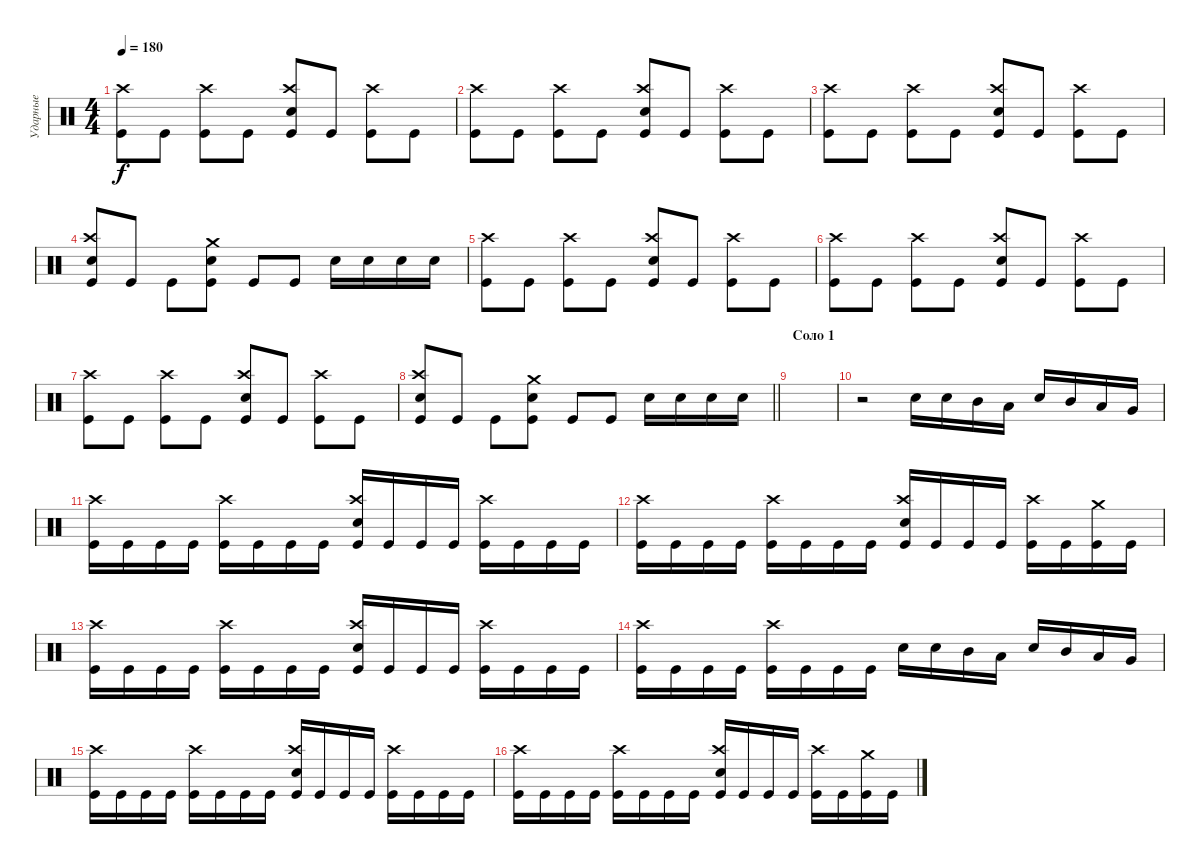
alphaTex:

\track ("Ударные" "Ударные") {instrument percussion}
\staff {score}
\articulation defaults
\ts (4 4)
\tempo 180
\clef neutral
\ks c
("Kick (hit)" "Crash high (hit)").8{dy f} "Kick (hit)".8 ("Kick (hit)" "Crash high (hit)").8 "Kick (hit)".8 ("Kick (hit)" "Crash high (hit)" "Snare (hit) 2").8 "Kick (hit)".8 ("Kick (hit)" "Crash high (hit)").8 "Kick (hit)".8 |
("Kick (hit)" "Crash high (hit)").8 "Kick (hit)".8 ("Kick (hit)" "Crash high (hit)").8 "Kick (hit)".8 ("Kick (hit)" "Crash high (hit)" "Snare (hit) 2").8 "Kick (hit)".8 ("Kick (hit)" "Crash high (hit)").8 "Kick (hit)".8 |
("Kick (hit)" "Crash high (hit)").8 "Kick (hit)".8 ("Kick (hit)" "Crash high (hit)").8 "Kick (hit)".8 ("Kick (hit)" "Crash high (hit)" "Snare (hit) 2").8 "Kick (hit)".8 ("Kick (hit)" "Crash high (hit)").8 "Kick (hit)".8 |
("Kick (hit)" "Crash high (hit)" "Snare (hit) 2").8 "Kick (hit)".8 "Kick (hit)".8 ("Kick (hit)" "Snare (hit) 2" "Crash medium (hit)").8 "Kick (hit)".8 "Kick (hit)".8 "Snare (hit) 2".16 "Snare (hit) 2".16 "Snare (hit) 2".16 "Snare (hit) 2".16 |
("Kick (hit)" "Crash high (hit)").8 "Kick (hit)".8 ("Kick (hit)" "Crash high (hit)").8 "Kick (hit)".8 ("Kick (hit)" "Crash high (hit)" "Snare (hit) 2").8 "Kick (hit)".8 ("Kick (hit)" "Crash high (hit)").8 "Kick (hit)".8 |
("Kick (hit)" "Crash high (hit)").8 "Kick (hit)".8 ("Kick (hit)" "Crash high (hit)").8 "Kick (hit)".8 ("Kick (hit)" "Crash high (hit)" "Snare (hit) 2").8 "Kick (hit)".8 ("Kick (hit)" "Crash high (hit)").8 "Kick (hit)".8 |
("Kick (hit)" "Crash high (hit)").8 "Kick (hit)".8 ("Kick (hit)" "Crash high (hit)").8 "Kick (hit)".8 ("Kick (hit)" "Crash high (hit)" "Snare (hit) 2").8 "Kick (hit)".8 ("Kick (hit)" "Crash high (hit)").8 "Kick (hit)".8 |
\barLineRight lightlight
("Kick (hit)" "Crash high (hit)" "Snare (hit) 2").8 "Kick (hit)".8 "Kick (hit)".8 ("Kick (hit)" "Snare (hit) 2" "Crash medium (hit)").8 "Kick (hit)".8 "Kick (hit)".8 "Snare (hit) 2".16 "Snare (hit) 2".16 "Snare (hit) 2".16 "Snare (hit) 2".16 |
\section ("" "Соло 1")
|
r.2 "Snare (hit) 2".16 "Snare (hit) 2".16 "Mid Tom (hit)".16 "Low Tom (hit)".16 "Snare (hit) 2".16 "Mid Tom (hit)".16 "Low Tom (hit)".16 "Very Low Tom (hit)".16 |
("Kick (hit)" "Crash high (hit)").16 "Kick (hit)".16 "Kick (hit)".16 "Kick (hit)".16 ("Kick (hit)" "Crash high (hit)").16 "Kick (hit)".16 "Kick (hit)".16 "Kick (hit)".16 ("Kick (hit)" "Crash high (hit)" "Snare (hit) 2").16 "Kick (hit)".16 "Kick (hit)".16 "Kick (hit)".16 ("Kick (hit)" "Crash high (hit)").16 "Kick (hit)".16 "Kick (hit)".16 "Kick (hit)".16 |
("Kick (hit)" "Crash high (hit)").16 "Kick (hit)".16 "Kick (hit)".16 "Kick (hit)".16 ("Kick (hit)" "Crash high (hit)").16 "Kick (hit)".16 "Kick (hit)".16 "Kick (hit)".16 ("Kick (hit)" "Crash high (hit)" "Snare (hit) 2").16 "Kick (hit)".16 "Kick (hit)".16 "Kick (hit)".16 ("Kick (hit)" "Crash high (hit)").16 "Kick (hit)".16 ("Kick (hit)" "Crash medium (hit)").16 "Kick (hit)".16 |
("Kick (hit)" "Crash high (hit)").16 "Kick (hit)".16 "Kick (hit)".16 "Kick (hit)".16 ("Kick (hit)" "Crash high (hit)").16 "Kick (hit)".16 "Kick (hit)".16 "Kick (hit)".16 ("Kick (hit)" "Crash high (hit)" "Snare (hit) 2").16 "Kick (hit)".16 "Kick (hit)".16 "Kick (hit)".16 ("Kick (hit)" "Crash high (hit)").16 "Kick (hit)".16 "Kick (hit)".16 "Kick (hit)".16 |
("Kick (hit)" "Crash high (hit)").16 "Kick (hit)".16 "Kick (hit)".16 "Kick (hit)".16 ("Kick (hit)" "Crash high (hit)").16 "Kick (hit)".16 "Kick (hit)".16 "Kick (hit)".16 "Snare (hit) 2".16 "Snare (hit) 2".16 "Mid Tom (hit)".16 "Low Tom (hit)".16 "Snare (hit) 2".16 "Mid Tom (hit)".16 "Low Tom (hit)".16 "Very Low Tom (hit)".16 |
("Kick (hit)" "Crash high (hit)").16 "Kick (hit)".16 "Kick (hit)".16 "Kick (hit)".16 ("Kick (hit)" "Crash high (hit)").16 "Kick (hit)".16 "Kick (hit)".16 "Kick (hit)".16 ("Kick (hit)" "Crash high (hit)" "Snare (hit) 2").16 "Kick (hit)".16 "Kick (hit)".16 "Kick (hit)".16 ("Kick (hit)" "Crash high (hit)").16 "Kick (hit)".16 "Kick (hit)".16 "Kick (hit)".16 |
("Kick (hit)" "Crash high (hit)").16 "Kick (hit)".16 "Kick (hit)".16 "Kick (hit)".16 ("Kick (hit)" "Crash high (hit)").16 "Kick (hit)".16 "Kick (hit)".16 "Kick (hit)".16 ("Kick (hit)" "Crash high (hit)" "Snare (hit) 2").16 "Kick (hit)".16 "Kick (hit)".16 "Kick (hit)".16 ("Kick (hit)" "Crash high (hit)").16 "Kick (hit)".16 ("Kick (hit)" "Crash medium (hit)").16 "Kick (hit)".16
